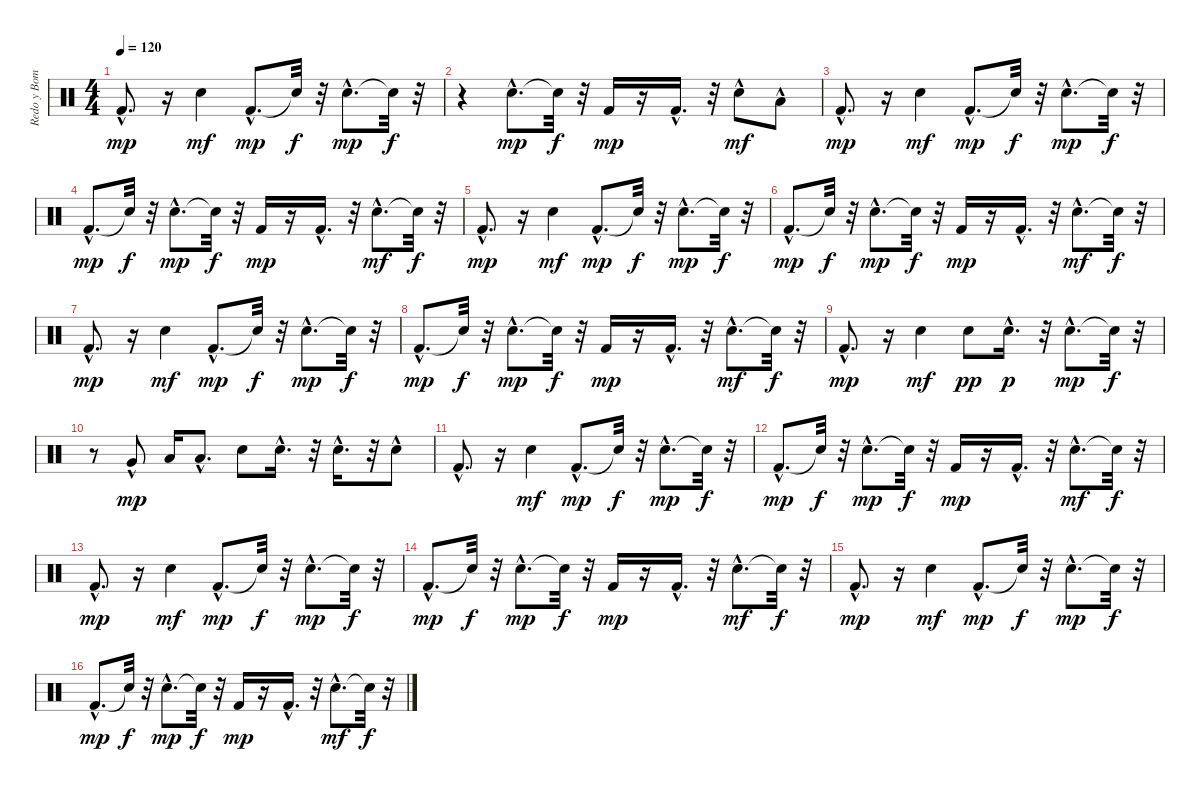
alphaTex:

\track ("Redo y Bombo" "Redo y Bom") {instrument percussion}
\staff {score}
\articulation defaults
\ts (4 4)
\tempo 120
\clef neutral
\ks c "Kick (hit) 2"{hac}.8{d dy mp}
r.16 "Snare (hit) 2".4{dy mf} "Kick (hit) 2"{hac}.8{d dy mp} "Snare (hit)"{t}.32{dy f} r.32 "Snare (hit) 2"{hac}.8{d dy mp} "Snare (hit)"{t}.32{dy f} r.32 |
r.4 "Snare (hit) 2"{hac}.8{d dy mp} "Snare (hit)"{t}.32{dy f} r.32 "Kick (hit) 2".16{dy mp} r.16 "Kick (hit) 2"{hac}.16{d} r.32 "Snare (hit) 2"{hac}.8{dy mf} "Low Floor Tom (hit)"{hac}.8 |
"Kick (hit) 2"{hac}.8{d dy mp} r.16 "Snare (hit) 2".4{dy mf} "Kick (hit) 2"{hac}.8{d dy mp} "Snare (hit)"{t}.32{dy f} r.32 "Snare (hit) 2"{hac}.8{d dy mp} "Snare (hit)"{t}.32{dy f} r.32 |
"Kick (hit) 2"{hac}.8{d dy mp} "Snare (hit)"{t}.32{dy f} r.32 "Snare (hit) 2"{hac}.8{d dy mp} "Snare (hit)"{t}.32{dy f} r.32 "Kick (hit) 2".16{dy mp} r.16 "Kick (hit) 2"{hac}.16{d} r.32 "Snare (hit) 2"{hac}.8{d dy mf} "Snare (hit)"{t}.32{dy f} r.32 |
"Kick (hit) 2"{hac}.8{d dy mp} r.16 "Snare (hit) 2".4{dy mf} "Kick (hit) 2"{hac}.8{d dy mp} "Snare (hit)"{t}.32{dy f} r.32 "Snare (hit) 2"{hac}.8{d dy mp} "Snare (hit)"{t}.32{dy f} r.32 |
"Kick (hit) 2"{hac}.8{d dy mp} "Snare (hit)"{t}.32{dy f} r.32 "Snare (hit) 2"{hac}.8{d dy mp} "Snare (hit)"{t}.32{dy f} r.32 "Kick (hit) 2".16{dy mp} r.16 "Kick (hit) 2"{hac}.16{d} r.32 "Snare (hit) 2"{hac}.8{d dy mf} "Snare (hit)"{t}.32{dy f} r.32 |
"Kick (hit) 2"{hac}.8{d dy mp} r.16 "Snare (hit) 2".4{dy mf} "Kick (hit) 2"{hac}.8{d dy mp} "Snare (hit)"{t}.32{dy f} r.32 "Snare (hit) 2"{hac}.8{d dy mp} "Snare (hit)"{t}.32{dy f} r.32 |
"Kick (hit) 2"{hac}.8{d dy mp} "Snare (hit)"{t}.32{dy f} r.32 "Snare (hit) 2"{hac}.8{d dy mp} "Snare (hit)"{t}.32{dy f} r.32 "Kick (hit) 2".16{dy mp} r.16 "Kick (hit) 2"{hac}.16{d} r.32 "Snare (hit) 2"{hac}.8{d dy mf} "Snare (hit)"{t}.32{dy f} r.32 |
"Kick (hit) 2"{hac}.8{d dy mp} r.16 "Snare (hit) 2".4{dy mf} "Electric Snare (hit)".8{dy pp} "Electric Snare (hit)"{hac}.16{d dy p} r.32 "Electric Snare (hit)"{hac}.8{d dy mp} "Snare (hit)"{t}.32{dy f} r.32 |
r.8 "Very Low Tom (hit)"{hac}.8{dy mp} "Low Floor Tom (hit)".16 "Low Floor Tom (hit)"{hac}.8{d} "Snare (hit) 2".8 "Snare (hit) 2"{hac}.16{d} r.32 "Snare (hit) 2"{hac}.16{d} r.32 "Snare (hit) 2"{hac}.8 |
"Kick (hit) 2"{hac}.8{d} r.16 "Snare (hit) 2".4{dy mf} "Kick (hit) 2"{hac}.8{d dy mp} "Snare (hit)"{t}.32{dy f} r.32 "Snare (hit) 2"{hac}.8{d dy mp} "Snare (hit)"{t}.32{dy f} r.32 |
"Kick (hit) 2"{hac}.8{d dy mp} "Snare (hit)"{t}.32{dy f} r.32 "Snare (hit) 2"{hac}.8{d dy mp} "Snare (hit)"{t}.32{dy f} r.32 "Kick (hit) 2".16{dy mp} r.16 "Kick (hit) 2"{hac}.16{d} r.32 "Snare (hit) 2"{hac}.8{d dy mf} "Snare (hit)"{t}.32{dy f} r.32 |
"Kick (hit) 2"{hac}.8{d dy mp} r.16 "Snare (hit) 2".4{dy mf} "Kick (hit) 2"{hac}.8{d dy mp} "Snare (hit)"{t}.32{dy f} r.32 "Snare (hit) 2"{hac}.8{d dy mp} "Snare (hit)"{t}.32{dy f} r.32 |
"Kick (hit) 2"{hac}.8{d dy mp} "Snare (hit)"{t}.32{dy f} r.32 "Snare (hit) 2"{hac}.8{d dy mp} "Snare (hit)"{t}.32{dy f} r.32 "Kick (hit) 2".16{dy mp} r.16 "Kick (hit) 2"{hac}.16{d} r.32 "Snare (hit) 2"{hac}.8{d dy mf} "Snare (hit)"{t}.32{dy f} r.32 |
"Kick (hit) 2"{hac}.8{d dy mp} r.16 "Snare (hit) 2".4{dy mf} "Kick (hit) 2"{hac}.8{d dy mp} "Snare (hit)"{t}.32{dy f} r.32 "Snare (hit) 2"{hac}.8{d dy mp} "Snare (hit)"{t}.32{dy f} r.32 |
"Kick (hit) 2"{hac}.8{d dy mp} "Snare (hit)"{t}.32{dy f} r.32 "Snare (hit) 2"{hac}.8{d dy mp} "Snare (hit)"{t}.32{dy f} r.32 "Kick (hit) 2".16{dy mp} r.16 "Kick (hit) 2"{hac}.16{d} r.32 "Snare (hit) 2"{hac}.8{d dy mf} "Snare (hit)"{t}.32{dy f} r.32
